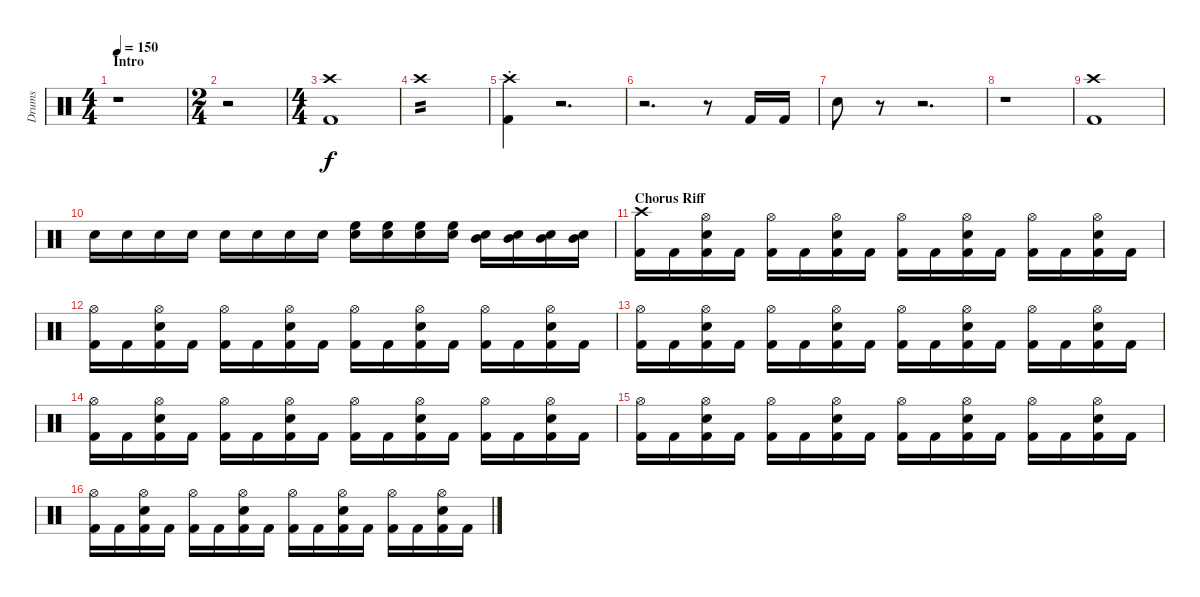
\track ("Drums" "Drums") {instrument percussion}
\staff {score}
\articulation defaults
\ts (4 4)
\section ("" "Intro")
\tempo 150
\clef neutral
\ks c
r.1{dy f} |
\ts (2 4)
r.2 |
\ts (4 4)
("Crash high (hit)" "Kick (hit) 2").1 |
"Crash high (hit)".1{tp 2} |
("Crash high (hit)"{st} "Kick (hit) 2"{st}).4 r.2{d} |
r.2{d} r.8 "Kick (hit) 2".16 "Kick (hit) 2".16 |
"Snare (hit) 2".8 r.8 r.2{d} |
r.1 |
("Crash high (hit)" "Kick (hit) 2").1 |
"Snare (hit) 2".16 "Snare (hit) 2".16 "Snare (hit) 2".16 "Snare (hit) 2".16 "Snare (hit) 2".16 "Snare (hit) 2".16 "Snare (hit) 2".16 "Snare (hit) 2".16 ("Snare (hit) 2" "High Floor Tom (hit)").16 ("Snare (hit) 2" "High Floor Tom (hit)").16 ("Snare (hit) 2" "High Floor Tom (hit)").16 ("Snare (hit) 2" "High Floor Tom (hit)").16 ("Snare (hit) 2" "Mid Tom (hit)").16 ("Snare (hit) 2" "Mid Tom (hit)").16 ("Snare (hit) 2" "Mid Tom (hit)").16 ("Snare (hit) 2" "Mid Tom (hit)").16 |
\section ("" "Chorus Riff")
("Crash high (hit)" "Kick (hit) 2").16 "Kick (hit) 2".16 ("Hi-Hat (open)" "Snare (hit) 2" "Kick (hit) 2").16 "Kick (hit) 2".16 ("Hi-Hat (open)" "Kick (hit) 2").16 "Kick (hit) 2".16 ("Hi-Hat (open)" "Snare (hit) 2" "Kick (hit) 2").16 "Kick (hit) 2".16 ("Hi-Hat (open)" "Kick (hit) 2").16 "Kick (hit) 2".16 ("Hi-Hat (open)" "Snare (hit) 2" "Kick (hit) 2").16 "Kick (hit) 2".16 ("Hi-Hat (open)" "Kick (hit) 2").16 "Kick (hit) 2".16 ("Hi-Hat (open)" "Snare (hit) 2" "Kick (hit) 2").16 "Kick (hit) 2".16 |
("Hi-Hat (open)" "Kick (hit) 2").16 "Kick (hit) 2".16 ("Hi-Hat (open)" "Snare (hit) 2" "Kick (hit) 2").16 "Kick (hit) 2".16 ("Hi-Hat (open)" "Kick (hit) 2").16 "Kick (hit) 2".16 ("Hi-Hat (open)" "Snare (hit) 2" "Kick (hit) 2").16 "Kick (hit) 2".16 ("Hi-Hat (open)" "Kick (hit) 2").16 "Kick (hit) 2".16 ("Hi-Hat (open)" "Snare (hit) 2" "Kick (hit) 2").16 "Kick (hit) 2".16 ("Hi-Hat (open)" "Kick (hit) 2").16 "Kick (hit) 2".16 ("Hi-Hat (open)" "Snare (hit) 2" "Kick (hit) 2").16 "Kick (hit) 2".16 |
("Hi-Hat (open)" "Kick (hit) 2").16 "Kick (hit) 2".16 ("Hi-Hat (open)" "Snare (hit) 2" "Kick (hit) 2").16 "Kick (hit) 2".16 ("Hi-Hat (open)" "Kick (hit) 2").16 "Kick (hit) 2".16 ("Hi-Hat (open)" "Snare (hit) 2" "Kick (hit) 2").16 "Kick (hit) 2".16 ("Hi-Hat (open)" "Kick (hit) 2").16 "Kick (hit) 2".16 ("Hi-Hat (open)" "Snare (hit) 2" "Kick (hit) 2").16 "Kick (hit) 2".16 ("Hi-Hat (open)" "Kick (hit) 2").16 "Kick (hit) 2".16 ("Hi-Hat (open)" "Snare (hit) 2" "Kick (hit) 2").16 "Kick (hit) 2".16 |
("Hi-Hat (open)" "Kick (hit) 2").16 "Kick (hit) 2".16 ("Hi-Hat (open)" "Snare (hit) 2" "Kick (hit) 2").16 "Kick (hit) 2".16 ("Hi-Hat (open)" "Kick (hit) 2").16 "Kick (hit) 2".16 ("Hi-Hat (open)" "Snare (hit) 2" "Kick (hit) 2").16 "Kick (hit) 2".16 ("Hi-Hat (open)" "Kick (hit) 2").16 "Kick (hit) 2".16 ("Hi-Hat (open)" "Snare (hit) 2" "Kick (hit) 2").16 "Kick (hit) 2".16 ("Hi-Hat (open)" "Kick (hit) 2").16 "Kick (hit) 2".16 ("Hi-Hat (open)" "Snare (hit) 2" "Kick (hit) 2").16 "Kick (hit) 2".16 |
("Hi-Hat (open)" "Kick (hit) 2").16 "Kick (hit) 2".16 ("Hi-Hat (open)" "Snare (hit) 2" "Kick (hit) 2").16 "Kick (hit) 2".16 ("Hi-Hat (open)" "Kick (hit) 2").16 "Kick (hit) 2".16 ("Hi-Hat (open)" "Snare (hit) 2" "Kick (hit) 2").16 "Kick (hit) 2".16 ("Hi-Hat (open)" "Kick (hit) 2").16 "Kick (hit) 2".16 ("Hi-Hat (open)" "Snare (hit) 2" "Kick (hit) 2").16 "Kick (hit) 2".16 ("Hi-Hat (open)" "Kick (hit) 2").16 "Kick (hit) 2".16 ("Hi-Hat (open)" "Snare (hit) 2" "Kick (hit) 2").16 "Kick (hit) 2".16 |
("Hi-Hat (open)" "Kick (hit) 2").16 "Kick (hit) 2".16 ("Hi-Hat (open)" "Snare (hit) 2" "Kick (hit) 2").16 "Kick (hit) 2".16 ("Hi-Hat (open)" "Kick (hit) 2").16 "Kick (hit) 2".16 ("Hi-Hat (open)" "Snare (hit) 2" "Kick (hit) 2").16 "Kick (hit) 2".16 ("Hi-Hat (open)" "Kick (hit) 2").16 "Kick (hit) 2".16 ("Hi-Hat (open)" "Snare (hit) 2" "Kick (hit) 2").16 "Kick (hit) 2".16 ("Hi-Hat (open)" "Kick (hit) 2").16 "Kick (hit) 2".16 ("Hi-Hat (open)" "Snare (hit) 2" "Kick (hit) 2").16 "Kick (hit) 2".16
